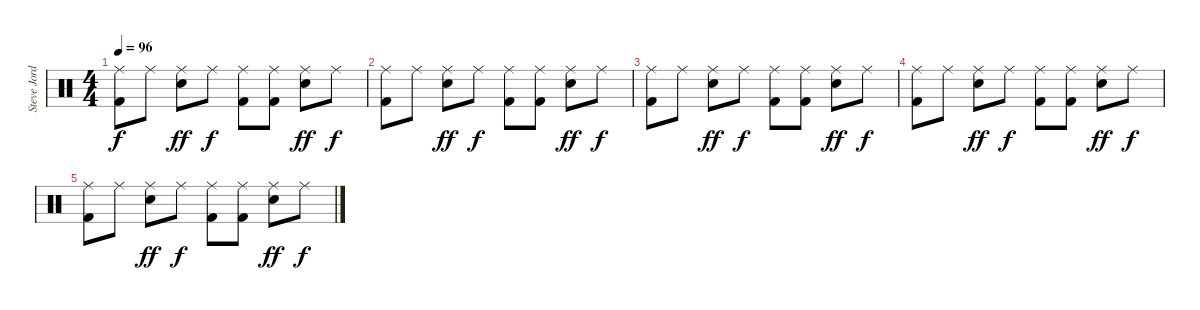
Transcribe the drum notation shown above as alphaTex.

\track ("Steve Jordan" "Steve Jord") {instrument percussion}
\staff {score}
\articulation defaults
\ts (4 4)
\tempo 96
\clef neutral
\ks c
("Ride (middle)" "Kick (hit) 2").8{dy f} "Ride (middle)".8 ("Ride (middle)" "Snare (hit) 2").8{dy ff} "Ride (middle)".8{dy f} ("Ride (middle)" "Kick (hit) 2").8 ("Ride (middle)" "Kick (hit) 2").8 ("Ride (middle)" "Snare (hit) 2").8{dy ff} "Ride (middle)".8{dy f} |
("Ride (middle)" "Kick (hit) 2").8{volume 0} "Ride (middle)".8 ("Ride (middle)" "Snare (hit) 2").8{dy ff} "Ride (middle)".8{dy f} ("Ride (middle)" "Kick (hit) 2").8 ("Ride (middle)" "Kick (hit) 2").8 ("Ride (middle)" "Snare (hit) 2").8{dy ff} "Ride (middle)".8{dy f} |
("Ride (middle)" "Kick (hit) 2").8 "Ride (middle)".8 ("Ride (middle)" "Snare (hit) 2").8{dy ff} "Ride (middle)".8{dy f} ("Ride (middle)" "Kick (hit) 2").8 ("Ride (middle)" "Kick (hit) 2").8 ("Ride (middle)" "Snare (hit) 2").8{dy ff} "Ride (middle)".8{dy f} |
("Ride (middle)" "Kick (hit) 2").8 "Ride (middle)".8 ("Ride (middle)" "Snare (hit) 2").8{dy ff} "Ride (middle)".8{dy f} ("Ride (middle)" "Kick (hit) 2").8 ("Ride (middle)" "Kick (hit) 2").8 ("Ride (middle)" "Snare (hit) 2").8{dy ff} "Ride (middle)".8{dy f} |
("Ride (middle)" "Kick (hit) 2").8 "Ride (middle)".8 ("Ride (middle)" "Snare (hit) 2").8{dy ff} "Ride (middle)".8{dy f} ("Ride (middle)" "Kick (hit) 2").8 ("Ride (middle)" "Kick (hit) 2").8 ("Ride (middle)" "Snare (hit) 2").8{dy ff} "Ride (middle)".8{dy f}
